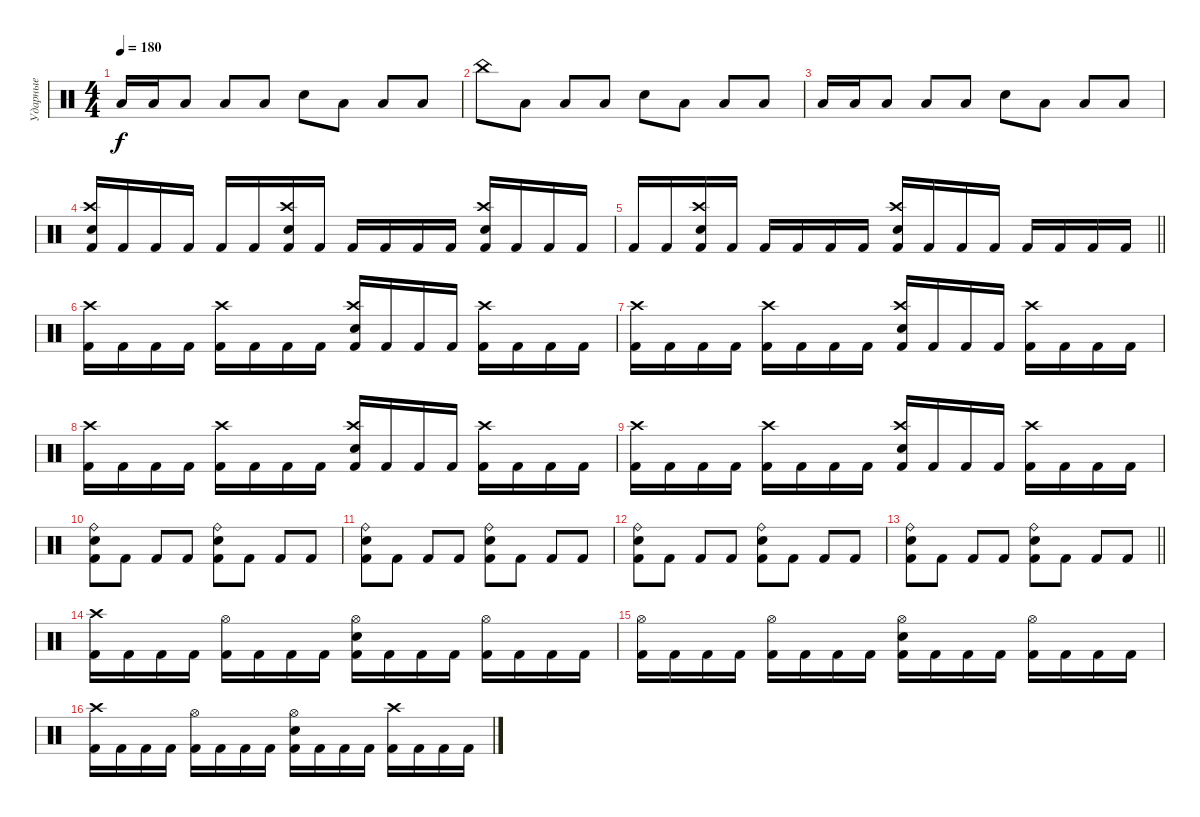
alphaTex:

\track ("Ударные" "Ударные") {instrument percussion}
\staff {score}
\articulation defaults
\ts (4 4)
\tempo 180
\clef neutral
\ks c "Low Floor Tom (hit)".16{dy f} "Low Floor Tom (hit)".16 "Low Floor Tom (hit)".8 "Low Floor Tom (hit)".8 "Low Floor Tom (hit)".8 "Electric Snare (hit)".8 "Low Floor Tom (hit)".8 "Low Floor Tom (hit)".8 "Low Floor Tom (hit)".8
|
"China (hit)".8 "Low Floor Tom (hit)".8 "Low Floor Tom (hit)".8 "Low Floor Tom (hit)".8 "Electric Snare (hit)".8 "Low Floor Tom (hit)".8 "Low Floor Tom (hit)".8 "Low Floor Tom (hit)".8 |
"Low Floor Tom (hit)".16 "Low Floor Tom (hit)".16 "Low Floor Tom (hit)".8 "Low Floor Tom (hit)".8 "Low Floor Tom (hit)".8 "Electric Snare (hit)".8 "Low Floor Tom (hit)".8 "Low Floor Tom (hit)".8 "Low Floor Tom (hit)".8 |
("Crash high (hit)" "Electric Snare (hit)" "Kick (hit) 2").16 "Kick (hit) 2".16 "Kick (hit) 2".16 "Kick (hit) 2".16 "Kick (hit) 2".16 "Kick (hit) 2".16 ("Crash high (hit)" "Electric Snare (hit)" "Kick (hit) 2").16 "Kick (hit) 2".16 "Kick (hit) 2".16 "Kick (hit) 2".16 "Kick (hit) 2".16 "Kick (hit) 2".16 ("Crash high (hit)" "Electric Snare (hit)" "Kick (hit) 2").16 "Kick (hit) 2".16 "Kick (hit) 2".16 "Kick (hit) 2".16 |
\barLineRight lightlight "Kick (hit) 2".16 "Kick (hit) 2".16
("Crash high (hit)" "Electric Snare (hit)" "Kick (hit) 2").16 "Kick (hit) 2".16 "Kick (hit) 2".16 "Kick (hit) 2".16 "Kick (hit) 2".16 "Kick (hit) 2".16 ("Crash high (hit)" "Electric Snare (hit)" "Kick (hit) 2").16 "Kick (hit) 2".16 "Kick (hit) 2".16 "Kick (hit) 2".16 "Kick (hit) 2".16 "Kick (hit) 2".16 "Kick (hit) 2".16 "Kick (hit) 2".16 |
\section ("" "")
("Crash high (hit)" "Kick (hit) 2").16 "Kick (hit) 2".16 "Kick (hit) 2".16 "Kick (hit) 2".16 ("Crash high (hit)" "Kick (hit) 2").16 "Kick (hit) 2".16 "Kick (hit) 2".16 "Kick (hit) 2".16 ("Crash high (hit)" "Electric Snare (hit)" "Kick (hit) 2").16 "Kick (hit) 2".16 "Kick (hit) 2".16 "Kick (hit) 2".16 ("Crash high (hit)" "Kick (hit) 2").16 "Kick (hit) 2".16 "Kick (hit) 2".16 "Kick (hit) 2".16 |
("Crash high (hit)" "Kick (hit) 2").16 "Kick (hit) 2".16 "Kick (hit) 2".16 "Kick (hit) 2".16 ("Crash high (hit)" "Kick (hit) 2").16 "Kick (hit) 2".16 "Kick (hit) 2".16 "Kick (hit) 2".16 ("Crash high (hit)" "Electric Snare (hit)" "Kick (hit) 2").16 "Kick (hit) 2".16 "Kick (hit) 2".16 "Kick (hit) 2".16 ("Crash high (hit)" "Kick (hit) 2").16 "Kick (hit) 2".16 "Kick (hit) 2".16 "Kick (hit) 2".16 |
("Crash high (hit)" "Kick (hit) 2").16 "Kick (hit) 2".16 "Kick (hit) 2".16 "Kick (hit) 2".16 ("Crash high (hit)" "Kick (hit) 2").16 "Kick (hit) 2".16 "Kick (hit) 2".16 "Kick (hit) 2".16 ("Crash high (hit)" "Electric Snare (hit)" "Kick (hit) 2").16 "Kick (hit) 2".16 "Kick (hit) 2".16 "Kick (hit) 2".16 ("Crash high (hit)" "Kick (hit) 2").16 "Kick (hit) 2".16 "Kick (hit) 2".16 "Kick (hit) 2".16 |
("Crash high (hit)" "Kick (hit) 2").16 "Kick (hit) 2".16 "Kick (hit) 2".16 "Kick (hit) 2".16 ("Crash high (hit)" "Kick (hit) 2").16 "Kick (hit) 2".16 "Kick (hit) 2".16 "Kick (hit) 2".16 ("Crash high (hit)" "Electric Snare (hit)" "Kick (hit) 2").16 "Kick (hit) 2".16 "Kick (hit) 2".16 "Kick (hit) 2".16 ("Crash high (hit)" "Kick (hit) 2").16 "Kick (hit) 2".16 "Kick (hit) 2".16 "Kick (hit) 2".16 |
("Ride (bell)" "Electric Snare (hit)" "Kick (hit) 2").8 "Kick (hit) 2".8 "Kick (hit) 2".8 "Kick (hit) 2".8 ("Ride (bell)" "Electric Snare (hit)" "Kick (hit) 2").8 "Kick (hit) 2".8 "Kick (hit) 2".8 "Kick (hit) 2".8 |
("Ride (bell)" "Electric Snare (hit)" "Kick (hit) 2").8 "Kick (hit) 2".8 "Kick (hit) 2".8 "Kick (hit) 2".8 ("Ride (bell)" "Electric Snare (hit)" "Kick (hit) 2").8 "Kick (hit) 2".8 "Kick (hit) 2".8 "Kick (hit) 2".8 |
("Ride (bell)" "Electric Snare (hit)" "Kick (hit) 2").8 "Kick (hit) 2".8 "Kick (hit) 2".8 "Kick (hit) 2".8 ("Ride (bell)" "Electric Snare (hit)" "Kick (hit) 2").8 "Kick (hit) 2".8 "Kick (hit) 2".8 "Kick (hit) 2".8 |
\barLineRight lightlight
("Ride (bell)" "Electric Snare (hit)" "Kick (hit) 2").8 "Kick (hit) 2".8 "Kick (hit) 2".8 "Kick (hit) 2".8 ("Ride (bell)" "Electric Snare (hit)" "Kick (hit) 2").8 "Kick (hit) 2".8 "Kick (hit) 2".8 "Kick (hit) 2".8 |
\section ("" "")
("Crash high (hit)" "Kick (hit) 2").16 "Kick (hit) 2".16 "Kick (hit) 2".16 "Kick (hit) 2".16 ("Hi-Hat (open)" "Kick (hit) 2").16 "Kick (hit) 2".16 "Kick (hit) 2".16 "Kick (hit) 2".16 ("Hi-Hat (open)" "Electric Snare (hit)" "Kick (hit) 2").16 "Kick (hit) 2".16 "Kick (hit) 2".16 "Kick (hit) 2".16 ("Hi-Hat (open)" "Kick (hit) 2").16 "Kick (hit) 2".16 "Kick (hit) 2".16 "Kick (hit) 2".16 |
("Hi-Hat (open)" "Kick (hit) 2").16 "Kick (hit) 2".16 "Kick (hit) 2".16 "Kick (hit) 2".16 ("Hi-Hat (open)" "Kick (hit) 2").16 "Kick (hit) 2".16 "Kick (hit) 2".16 "Kick (hit) 2".16 ("Hi-Hat (open)" "Electric Snare (hit)" "Kick (hit) 2").16 "Kick (hit) 2".16 "Kick (hit) 2".16 "Kick (hit) 2".16 ("Hi-Hat (open)" "Kick (hit) 2").16 "Kick (hit) 2".16 "Kick (hit) 2".16 "Kick (hit) 2".16 |
("Crash high (hit)" "Kick (hit) 2").16 "Kick (hit) 2".16 "Kick (hit) 2".16 "Kick (hit) 2".16 ("Hi-Hat (open)" "Kick (hit) 2").16 "Kick (hit) 2".16 "Kick (hit) 2".16 "Kick (hit) 2".16 ("Hi-Hat (open)" "Electric Snare (hit)" "Kick (hit) 2").16 "Kick (hit) 2".16 "Kick (hit) 2".16 "Kick (hit) 2".16 ("Crash high (hit)" "Kick (hit) 2").16 "Kick (hit) 2".16 "Kick (hit) 2".16 "Kick (hit) 2".16
